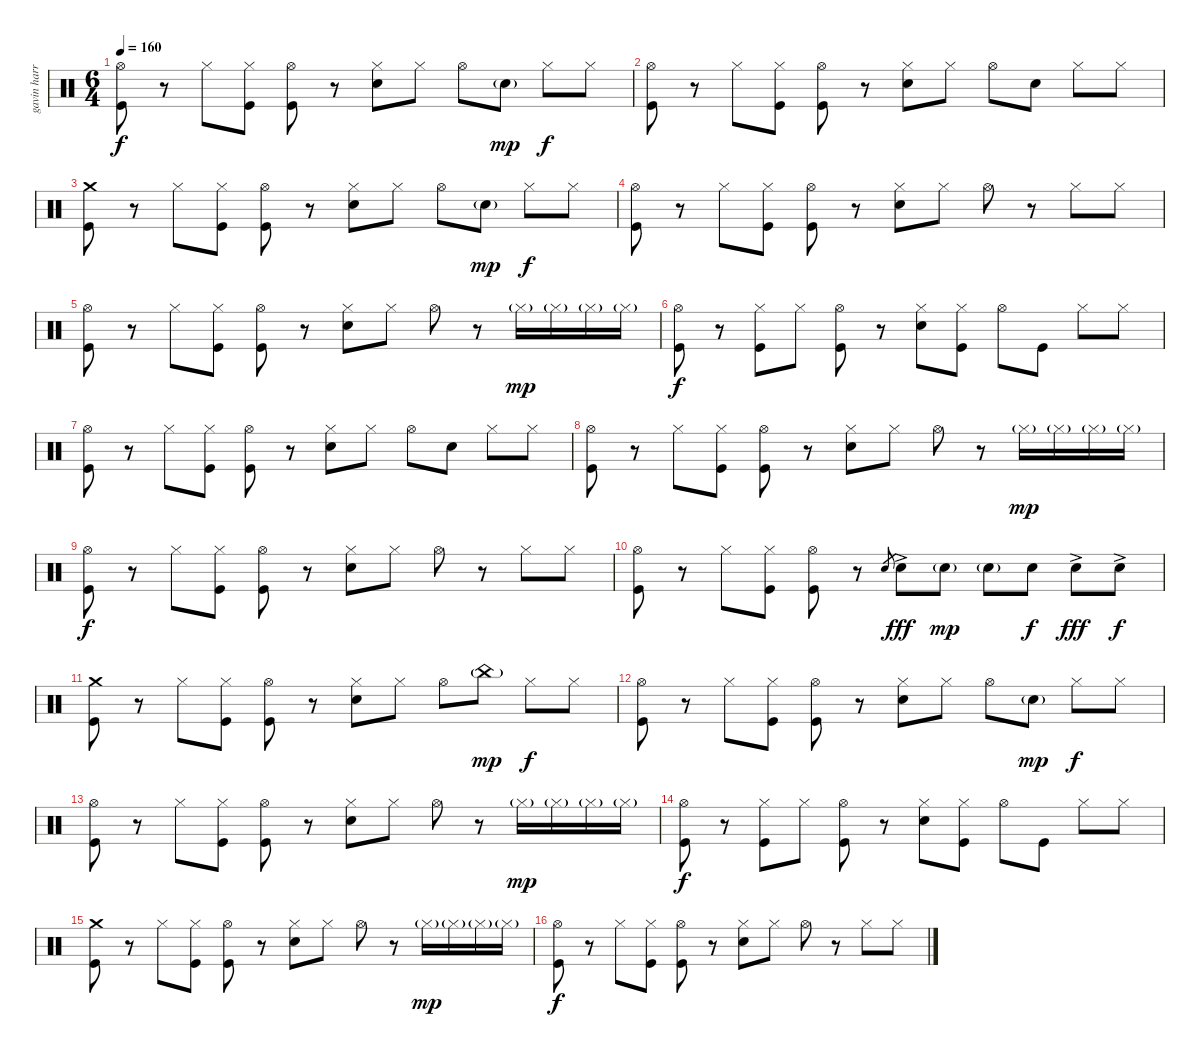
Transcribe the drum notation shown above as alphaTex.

\track ("gavin harrison ( drum ) " "gavin harr") {instrument percussion}
\staff {score}
\articulation defaults
\ts (6 4)
\tempo 160
\clef neutral
\ks c
("Hi-Hat (open)" "Kick (hit)").8{dy f} r.8 "Hi-Hat (closed)".8 ("Hi-Hat (closed)" "Kick (hit)").8 ("Hi-Hat (open)" "Kick (hit)").8 r.8 ("Hi-Hat (closed)" "Snare (hit) 2").8 "Hi-Hat (closed)".8 "Hi-Hat (open)".8 "Snare (hit) 2"{g}.8{dy mp} "Hi-Hat (closed)".8{dy f} "Hi-Hat (closed)".8 |
("Hi-Hat (open)" "Kick (hit)").8 r.8 "Hi-Hat (closed)".8 ("Hi-Hat (closed)" "Kick (hit)").8 ("Hi-Hat (open)" "Kick (hit)").8 r.8 ("Hi-Hat (closed)" "Snare (hit) 2").8 "Hi-Hat (closed)".8 "Hi-Hat (open)".8 "Snare (hit) 2".8 "Hi-Hat (closed)".8 "Hi-Hat (closed)".8 |
("Crash medium (hit)" "Kick (hit)").8 r.8 "Hi-Hat (closed)".8 ("Hi-Hat (closed)" "Kick (hit)").8 ("Hi-Hat (open)" "Kick (hit)").8 r.8 ("Hi-Hat (closed)" "Snare (hit) 2").8 "Hi-Hat (closed)".8 "Hi-Hat (open)".8 "Snare (hit) 2"{g}.8{dy mp} "Hi-Hat (closed)".8{dy f} "Hi-Hat (closed)".8 |
("Hi-Hat (open)" "Kick (hit)").8 r.8 "Hi-Hat (closed)".8 ("Hi-Hat (closed)" "Kick (hit)").8 ("Hi-Hat (open)" "Kick (hit)").8 r.8 ("Hi-Hat (closed)" "Snare (hit) 2").8 "Hi-Hat (closed)".8 "Hi-Hat (open)".8 r.8 "Hi-Hat (closed)".8 "Hi-Hat (closed)".8 |
("Hi-Hat (open)" "Kick (hit)").8 r.8 "Hi-Hat (closed)".8 ("Hi-Hat (closed)" "Kick (hit)").8 ("Hi-Hat (open)" "Kick (hit)").8 r.8 ("Hi-Hat (closed)" "Snare (hit) 2").8 "Hi-Hat (closed)".8 "Hi-Hat (open)".8 r.8 "Hi-Hat (closed)"{g}.16{dy mp} "Hi-Hat (closed)"{g}.16 "Hi-Hat (closed)"{g}.16 "Hi-Hat (closed)"{g}.16 |
("Hi-Hat (open)" "Kick (hit)").8{dy f} r.8 ("Hi-Hat (closed)" "Kick (hit)").8 "Hi-Hat (closed)".8 ("Hi-Hat (open)" "Kick (hit)").8 r.8 ("Hi-Hat (closed)" "Snare (hit) 2").8 ("Hi-Hat (closed)" "Kick (hit)").8 "Hi-Hat (open)".8 "Kick (hit)".8 "Hi-Hat (closed)".8 "Hi-Hat (closed)".8 |
("Hi-Hat (open)" "Kick (hit)").8 r.8 "Hi-Hat (closed)".8 ("Hi-Hat (closed)" "Kick (hit)").8 ("Hi-Hat (open)" "Kick (hit)").8 r.8 ("Hi-Hat (closed)" "Snare (hit) 2").8 "Hi-Hat (closed)".8 "Hi-Hat (open)".8 "Snare (hit) 2".8 "Hi-Hat (closed)".8 "Hi-Hat (closed)".8 |
("Hi-Hat (open)" "Kick (hit)").8 r.8 "Hi-Hat (closed)".8 ("Hi-Hat (closed)" "Kick (hit)").8 ("Hi-Hat (open)" "Kick (hit)").8 r.8 ("Hi-Hat (closed)" "Snare (hit) 2").8 "Hi-Hat (closed)".8 "Hi-Hat (open)".8 r.8 "Hi-Hat (closed)"{g}.16{dy mp} "Hi-Hat (closed)"{g}.16 "Hi-Hat (closed)"{g}.16 "Hi-Hat (closed)"{g}.16 |
("Hi-Hat (open)" "Kick (hit)").8{dy f} r.8 "Hi-Hat (closed)".8 ("Hi-Hat (closed)" "Kick (hit)").8 ("Hi-Hat (open)" "Kick (hit)").8 r.8 ("Hi-Hat (closed)" "Snare (hit) 2").8 "Hi-Hat (closed)".8 "Hi-Hat (open)".8 r.8 "Hi-Hat (closed)".8 "Hi-Hat (closed)".8 |
("Hi-Hat (open)" "Kick (hit)").8 r.8 "Hi-Hat (closed)".8 ("Hi-Hat (closed)" "Kick (hit)").8 ("Hi-Hat (open)" "Kick (hit)").8 r.8 "Snare (hit) 2".8{gr} "Snare (hit) 2"{ac}.8{dy fff} "Snare (hit) 2"{g}.8{dy mp} "Snare (hit) 2"{g}.8 "Snare (hit) 2".8{dy f} "Snare (hit) 2"{ac}.8{dy fff} "Snare (hit) 2"{ac}.8{dy f} |
("Crash medium (hit)" "Kick (hit)").8 r.8 "Hi-Hat (closed)".8 ("Hi-Hat (closed)" "Kick (hit)").8 ("Hi-Hat (open)" "Kick (hit)").8 r.8 ("Hi-Hat (closed)" "Snare (hit) 2").8 "Hi-Hat (closed)".8 "Hi-Hat (open)".8 "China (hit)"{g}.8{dy mp} "Hi-Hat (closed)".8{dy f} "Hi-Hat (closed)".8 |
("Hi-Hat (open)" "Kick (hit)").8 r.8 "Hi-Hat (closed)".8 ("Hi-Hat (closed)" "Kick (hit)").8 ("Hi-Hat (open)" "Kick (hit)").8 r.8 ("Hi-Hat (closed)" "Snare (hit) 2").8 "Hi-Hat (closed)".8 "Hi-Hat (open)".8 "Snare (hit) 2"{g}.8{dy mp} "Hi-Hat (closed)".8{dy f} "Hi-Hat (closed)".8 |
("Hi-Hat (open)" "Kick (hit)").8 r.8 "Hi-Hat (closed)".8 ("Hi-Hat (closed)" "Kick (hit)").8 ("Hi-Hat (open)" "Kick (hit)").8 r.8 ("Hi-Hat (closed)" "Snare (hit) 2").8 "Hi-Hat (closed)".8 "Hi-Hat (open)".8 r.8 "Hi-Hat (closed)"{g}.16{dy mp} "Hi-Hat (closed)"{g}.16 "Hi-Hat (closed)"{g}.16 "Hi-Hat (closed)"{g}.16 |
("Hi-Hat (open)" "Kick (hit)").8{dy f} r.8 ("Hi-Hat (closed)" "Kick (hit)").8 "Hi-Hat (closed)".8 ("Hi-Hat (open)" "Kick (hit)").8 r.8 ("Hi-Hat (closed)" "Snare (hit) 2").8 ("Hi-Hat (closed)" "Kick (hit)").8 "Hi-Hat (open)".8 "Kick (hit)".8 "Hi-Hat (closed)".8 "Hi-Hat (closed)".8 |
("Crash medium (hit)" "Kick (hit)").8 r.8 "Hi-Hat (closed)".8 ("Hi-Hat (closed)" "Kick (hit)").8 ("Hi-Hat (open)" "Kick (hit)").8 r.8 ("Hi-Hat (closed)" "Snare (hit) 2").8 "Hi-Hat (closed)".8 "Hi-Hat (open)".8 r.8 "Hi-Hat (closed)"{g}.16{dy mp} "Hi-Hat (closed)"{g}.16 "Hi-Hat (closed)"{g}.16 "Hi-Hat (closed)"{g}.16 |
("Hi-Hat (open)" "Kick (hit)").8{dy f} r.8 "Hi-Hat (closed)".8 ("Hi-Hat (closed)" "Kick (hit)").8 ("Hi-Hat (open)" "Kick (hit)").8 r.8 ("Hi-Hat (closed)" "Snare (hit) 2").8 "Hi-Hat (closed)".8 "Hi-Hat (open)".8 r.8 "Hi-Hat (closed)".8 "Hi-Hat (closed)".8
